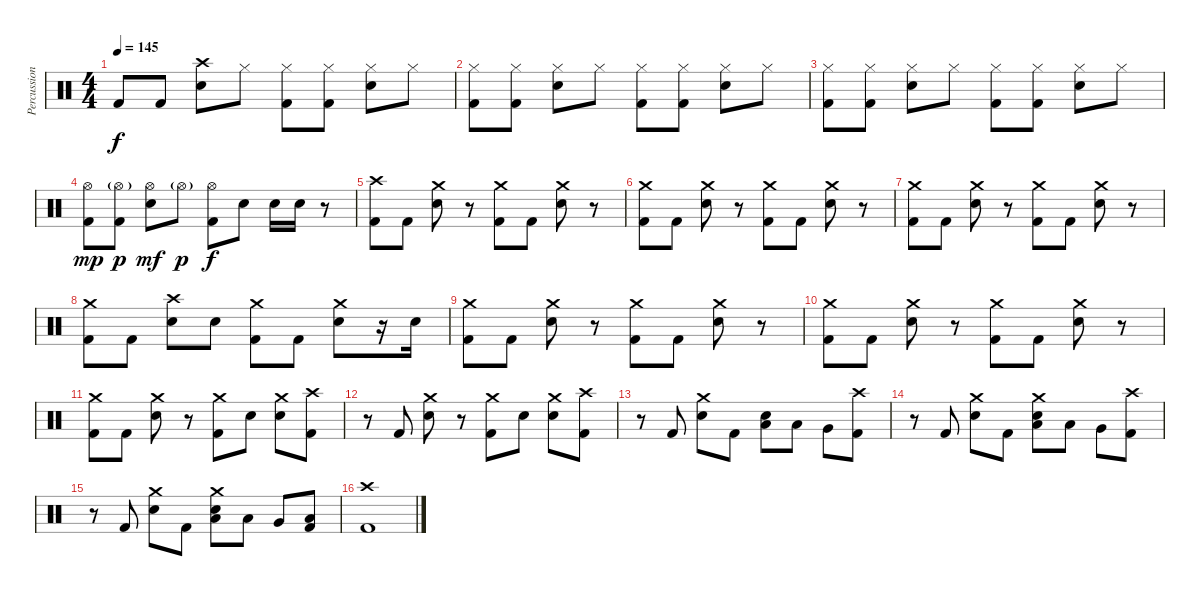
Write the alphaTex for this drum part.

\track ("Percussion" "Percussion") {instrument percussion}
\staff {score}
\articulation defaults
\ts (4 4)
\tempo 145
\clef neutral
\ks c "Kick (hit) 2".8{dy f} "Kick (hit) 2".8
("Crash high (hit)" "Electric Snare (hit)").8 "Hi-Hat (closed)".8 ("Hi-Hat (closed)" "Kick (hit) 2").8 ("Hi-Hat (closed)" "Kick (hit) 2").8 ("Hi-Hat (closed)" "Electric Snare (hit)").8 "Hi-Hat (closed)".8 |
("Hi-Hat (closed)" "Kick (hit) 2").8 ("Hi-Hat (closed)" "Kick (hit) 2").8 ("Hi-Hat (closed)" "Electric Snare (hit)").8 "Hi-Hat (closed)".8 ("Hi-Hat (closed)" "Kick (hit) 2").8 ("Hi-Hat (closed)" "Kick (hit) 2").8 ("Hi-Hat (closed)" "Electric Snare (hit)").8 "Hi-Hat (closed)".8 |
("Hi-Hat (closed)" "Kick (hit) 2").8 ("Hi-Hat (closed)" "Kick (hit) 2").8 ("Hi-Hat (closed)" "Electric Snare (hit)").8 "Hi-Hat (closed)".8 ("Hi-Hat (closed)" "Kick (hit) 2").8 ("Hi-Hat (closed)" "Kick (hit) 2").8 ("Hi-Hat (closed)" "Electric Snare (hit)").8 "Hi-Hat (closed)".8 |
("Hi-Hat (open)" "Kick (hit) 2").8{dy mp} ("Hi-Hat (open)"{g} "Kick (hit) 2").8{dy p} ("Hi-Hat (open)" "Electric Snare (hit)").8{dy mf} "Hi-Hat (open)"{g}.8{dy p} ("Hi-Hat (open)" "Kick (hit) 2").8{dy f} "Electric Snare (hit)".8 "Electric Snare (hit)".16 "Electric Snare (hit)".16 r.8 |
("Crash high (hit)" "Kick (hit) 2").8 "Kick (hit) 2".8 ("Crash medium (hit)" "Electric Snare (hit)").8 r.8 ("Crash medium (hit)" "Kick (hit) 2").8 "Kick (hit) 2".8 ("Crash medium (hit)" "Electric Snare (hit)").8 r.8 |
("Crash medium (hit)" "Kick (hit) 2").8 "Kick (hit) 2".8 ("Crash medium (hit)" "Electric Snare (hit)").8 r.8 ("Crash medium (hit)" "Kick (hit) 2").8 "Kick (hit) 2".8 ("Crash medium (hit)" "Electric Snare (hit)").8 r.8 |
("Crash medium (hit)" "Kick (hit) 2").8 "Kick (hit) 2".8 ("Crash medium (hit)" "Electric Snare (hit)").8 r.8 ("Crash medium (hit)" "Kick (hit) 2").8 "Kick (hit) 2".8 ("Crash medium (hit)" "Electric Snare (hit)").8 r.8 |
("Crash medium (hit)" "Kick (hit) 2").8 "Kick (hit) 2".8 ("Crash high (hit)" "Electric Snare (hit)").8 "Electric Snare (hit)".8 ("Crash medium (hit)" "Kick (hit) 2").8 "Kick (hit) 2".8 ("Crash medium (hit)" "Electric Snare (hit)").8 r.16 "Electric Snare (hit)".16 |
("Crash medium (hit)" "Kick (hit) 2").8 "Kick (hit) 2".8 ("Crash medium (hit)" "Electric Snare (hit)").8 r.8 ("Crash medium (hit)" "Kick (hit) 2").8 "Kick (hit) 2".8 ("Crash medium (hit)" "Electric Snare (hit)").8 r.8 |
("Crash medium (hit)" "Kick (hit) 2").8 "Kick (hit) 2".8 ("Crash medium (hit)" "Electric Snare (hit)").8 r.8 ("Crash medium (hit)" "Kick (hit) 2").8 "Kick (hit) 2".8 ("Crash medium (hit)" "Electric Snare (hit)").8 r.8 |
("Crash medium (hit)" "Kick (hit) 2").8 "Kick (hit) 2".8 ("Crash medium (hit)" "Electric Snare (hit)").8 r.8 ("Crash medium (hit)" "Kick (hit) 2").8 "Electric Snare (hit)".8 ("Crash medium (hit)" "Electric Snare (hit)").8 ("Crash high (hit)" "Kick (hit) 2").8 |
r.8 "Kick (hit) 2".8 ("Crash medium (hit)" "Electric Snare (hit)").8 r.8 ("Crash medium (hit)" "Kick (hit) 2").8 "Electric Snare (hit)".8 ("Crash medium (hit)" "Electric Snare (hit)").8 ("Crash high (hit)" "Kick (hit) 2").8 |
r.8 "Kick (hit) 2".8 ("Crash medium (hit)" "Electric Snare (hit)").8 "Kick (hit) 2".8 ("Low Floor Tom (hit)" "Electric Snare (hit)").8 "Low Tom (hit)".8 "Very Low Tom (hit)".8 ("Crash high (hit)" "Kick (hit) 2").8 |
r.8 "Kick (hit) 2".8 ("Crash medium (hit)" "Electric Snare (hit)").8 "Kick (hit) 2".8 ("Crash medium (hit)" "Low Floor Tom (hit)" "Electric Snare (hit)").8 "Low Tom (hit)".8 "Very Low Tom (hit)".8 ("Crash high (hit)" "Kick (hit) 2").8 |
r.8 "Kick (hit) 2".8 ("Crash medium (hit)" "Electric Snare (hit)").8 "Kick (hit) 2".8 ("Crash medium (hit)" "Low Floor Tom (hit)" "Electric Snare (hit)").8 "Low Tom (hit)".8 "Very Low Tom (hit)".8 ("Low Floor Tom (hit)" "Kick (hit) 2").8 |
("Crash high (hit)" "Kick (hit) 2").1
